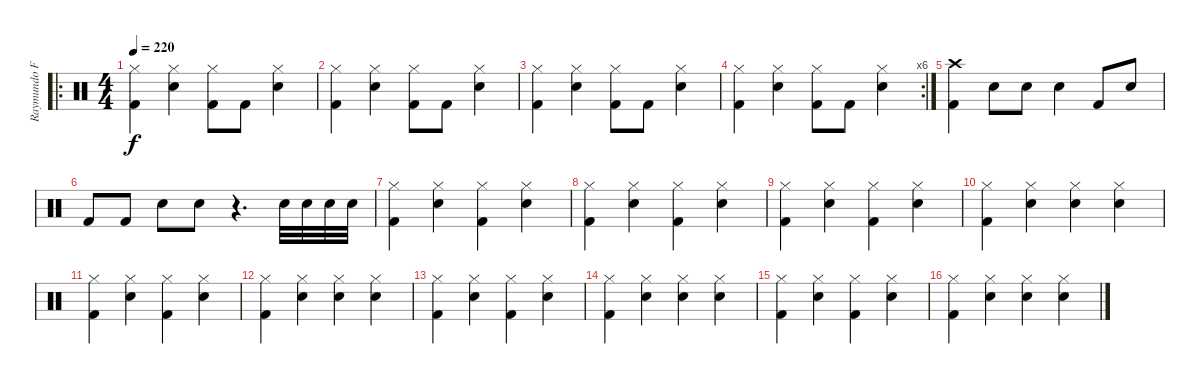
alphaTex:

\track ("Raymundo Fajaro" "Raymundo F") {instrument percussion}
\staff {score}
\articulation defaults
\ro
\ts (4 4)
\tempo 220
\clef neutral
\ks c
("Kick (hit) 2" "Hi-Hat (closed)").4{dy f} ("Electric Snare (hit)" "Hi-Hat (closed)").4 ("Kick (hit) 2" "Hi-Hat (closed)").8 "Kick (hit) 2".8 ("Electric Snare (hit)" "Hi-Hat (closed)").4 |
("Kick (hit) 2" "Hi-Hat (closed)").4 ("Electric Snare (hit)" "Hi-Hat (closed)").4 ("Kick (hit) 2" "Hi-Hat (closed)").8 "Kick (hit) 2".8 ("Electric Snare (hit)" "Hi-Hat (closed)").4 |
("Kick (hit) 2" "Hi-Hat (closed)").4 ("Electric Snare (hit)" "Hi-Hat (closed)").4 ("Kick (hit) 2" "Hi-Hat (closed)").8 "Kick (hit) 2".8 ("Electric Snare (hit)" "Hi-Hat (closed)").4 |
\rc 6
("Kick (hit) 2" "Hi-Hat (closed)").4 ("Electric Snare (hit)" "Hi-Hat (closed)").4 ("Kick (hit) 2" "Hi-Hat (closed)").8 "Kick (hit) 2".8 ("Electric Snare (hit)" "Hi-Hat (closed)").4 |
("Kick (hit) 2" "Crash high (hit)").4 "Electric Snare (hit)".8 "Electric Snare (hit)".8 "Electric Snare (hit)".4 "Kick (hit) 2".8 "Electric Snare (hit)".8 |
"Kick (hit) 2".8 "Kick (hit) 2".8 "Electric Snare (hit)".8 "Electric Snare (hit)".8 r.4{d} "Electric Snare (hit)".32 "Electric Snare (hit)".32 "Electric Snare (hit)".32 "Electric Snare (hit)".32 |
("Kick (hit) 2" "Hi-Hat (closed)").4 ("Electric Snare (hit)" "Hi-Hat (closed)").4 ("Kick (hit) 2" "Hi-Hat (closed)").4 ("Electric Snare (hit)" "Hi-Hat (closed)").4 |
("Kick (hit) 2" "Hi-Hat (closed)").4 ("Electric Snare (hit)" "Hi-Hat (closed)").4 ("Kick (hit) 2" "Hi-Hat (closed)").4 ("Electric Snare (hit)" "Hi-Hat (closed)").4 |
("Kick (hit) 2" "Hi-Hat (closed)").4 ("Electric Snare (hit)" "Hi-Hat (closed)").4 ("Kick (hit) 2" "Hi-Hat (closed)").4 ("Electric Snare (hit)" "Hi-Hat (closed)").4 |
("Kick (hit) 2" "Hi-Hat (closed)").4 ("Electric Snare (hit)" "Hi-Hat (closed)").4 ("Electric Snare (hit)" "Hi-Hat (closed)").4 ("Electric Snare (hit)" "Hi-Hat (closed)").4 |
("Kick (hit) 2" "Hi-Hat (closed)").4 ("Electric Snare (hit)" "Hi-Hat (closed)").4 ("Kick (hit) 2" "Hi-Hat (closed)").4 ("Electric Snare (hit)" "Hi-Hat (closed)").4 |
("Kick (hit) 2" "Hi-Hat (closed)").4 ("Electric Snare (hit)" "Hi-Hat (closed)").4 ("Electric Snare (hit)" "Hi-Hat (closed)").4 ("Electric Snare (hit)" "Hi-Hat (closed)").4 |
("Kick (hit) 2" "Hi-Hat (closed)").4 ("Electric Snare (hit)" "Hi-Hat (closed)").4 ("Kick (hit) 2" "Hi-Hat (closed)").4 ("Electric Snare (hit)" "Hi-Hat (closed)").4 |
("Kick (hit) 2" "Hi-Hat (closed)").4 ("Electric Snare (hit)" "Hi-Hat (closed)").4 ("Electric Snare (hit)" "Hi-Hat (closed)").4 ("Electric Snare (hit)" "Hi-Hat (closed)").4 |
("Kick (hit) 2" "Hi-Hat (closed)").4 ("Electric Snare (hit)" "Hi-Hat (closed)").4 ("Kick (hit) 2" "Hi-Hat (closed)").4 ("Electric Snare (hit)" "Hi-Hat (closed)").4 |
("Kick (hit) 2" "Hi-Hat (closed)").4 ("Electric Snare (hit)" "Hi-Hat (closed)").4 ("Electric Snare (hit)" "Hi-Hat (closed)").4 ("Electric Snare (hit)" "Hi-Hat (closed)").4
